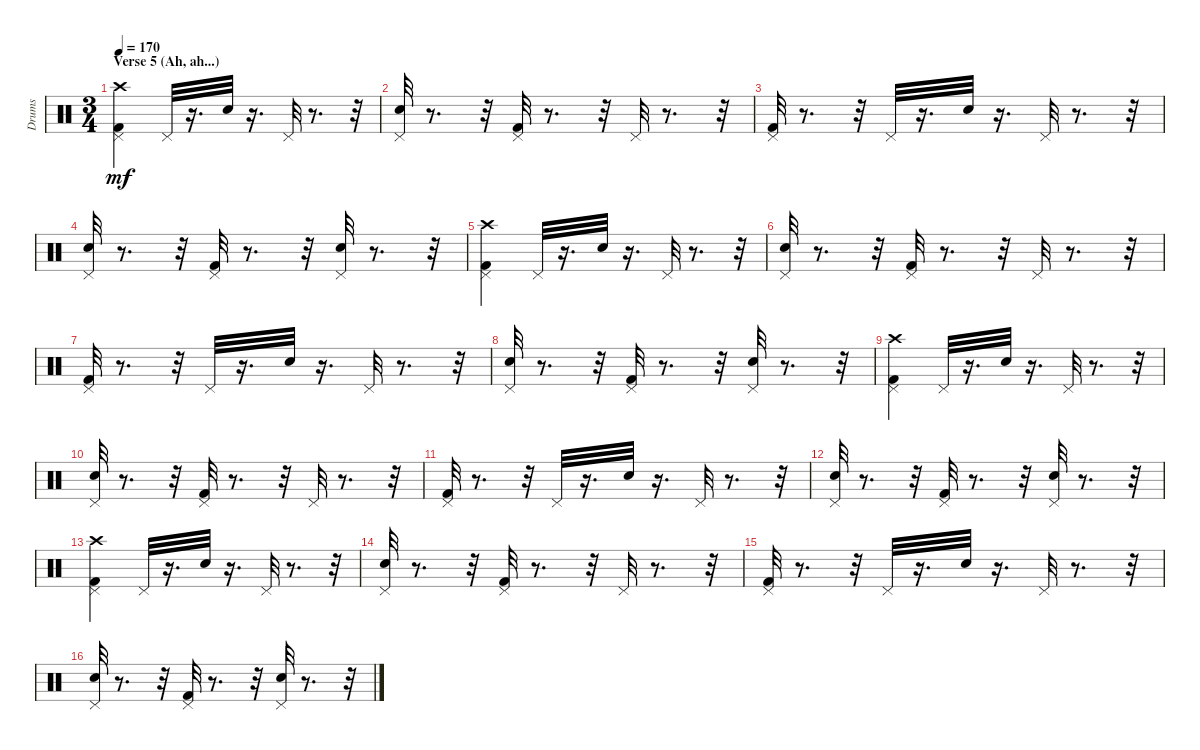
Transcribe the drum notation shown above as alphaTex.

\track ("Drums" "Drums") {instrument percussion}
\staff {score}
\articulation defaults
\ts (3 4)
\section ("" "Verse 5 (Ah, ah...)")
\tempo 170
\clef neutral
\ks c
("Kick (hit) 2" "Pedal Hi-Hat (hit)" "Crash high (hit)").4{dy mf} "Pedal Hi-Hat (hit)".32 r.16{d} "Snare (hit) 2".32 r.16{d} "Pedal Hi-Hat (hit)".32 r.8{d} r.32 |
("Snare (hit) 2" "Pedal Hi-Hat (hit)").32 r.8{d} r.32 ("Kick (hit) 2" "Pedal Hi-Hat (hit)").32 r.8{d} r.32 "Pedal Hi-Hat (hit)".32 r.8{d} r.32 |
("Kick (hit) 2" "Pedal Hi-Hat (hit)").32 r.8{d} r.32 "Pedal Hi-Hat (hit)".32 r.16{d} "Snare (hit) 2".32 r.16{d} "Pedal Hi-Hat (hit)".32 r.8{d} r.32 |
("Snare (hit) 2" "Pedal Hi-Hat (hit)").32 r.8{d} r.32 ("Kick (hit) 2" "Pedal Hi-Hat (hit)").32 r.8{d} r.32 ("Snare (hit) 2" "Pedal Hi-Hat (hit)").32 r.8{d} r.32 |
("Kick (hit) 2" "Pedal Hi-Hat (hit)" "Crash high (hit)").4 "Pedal Hi-Hat (hit)".32 r.16{d} "Snare (hit) 2".32 r.16{d} "Pedal Hi-Hat (hit)".32 r.8{d} r.32 |
("Snare (hit) 2" "Pedal Hi-Hat (hit)").32 r.8{d} r.32 ("Kick (hit) 2" "Pedal Hi-Hat (hit)").32 r.8{d} r.32 "Pedal Hi-Hat (hit)".32 r.8{d} r.32 |
("Kick (hit) 2" "Pedal Hi-Hat (hit)").32 r.8{d} r.32 "Pedal Hi-Hat (hit)".32 r.16{d} "Snare (hit) 2".32 r.16{d} "Pedal Hi-Hat (hit)".32 r.8{d} r.32 |
("Snare (hit) 2" "Pedal Hi-Hat (hit)").32 r.8{d} r.32 ("Kick (hit) 2" "Pedal Hi-Hat (hit)").32 r.8{d} r.32 ("Snare (hit) 2" "Pedal Hi-Hat (hit)").32 r.8{d} r.32 |
("Kick (hit) 2" "Pedal Hi-Hat (hit)" "Crash high (hit)").4 "Pedal Hi-Hat (hit)".32 r.16{d} "Snare (hit) 2".32 r.16{d} "Pedal Hi-Hat (hit)".32 r.8{d} r.32 |
("Snare (hit) 2" "Pedal Hi-Hat (hit)").32 r.8{d} r.32 ("Kick (hit) 2" "Pedal Hi-Hat (hit)").32 r.8{d} r.32 "Pedal Hi-Hat (hit)".32 r.8{d} r.32 |
("Kick (hit) 2" "Pedal Hi-Hat (hit)").32 r.8{d} r.32 "Pedal Hi-Hat (hit)".32 r.16{d} "Snare (hit) 2".32 r.16{d} "Pedal Hi-Hat (hit)".32 r.8{d} r.32 |
("Snare (hit) 2" "Pedal Hi-Hat (hit)").32 r.8{d} r.32 ("Kick (hit) 2" "Pedal Hi-Hat (hit)").32 r.8{d} r.32 ("Snare (hit) 2" "Pedal Hi-Hat (hit)").32 r.8{d} r.32 |
("Kick (hit) 2" "Pedal Hi-Hat (hit)" "Crash high (hit)").4 "Pedal Hi-Hat (hit)".32 r.16{d} "Snare (hit) 2".32 r.16{d} "Pedal Hi-Hat (hit)".32 r.8{d} r.32 |
("Snare (hit) 2" "Pedal Hi-Hat (hit)").32 r.8{d} r.32 ("Kick (hit) 2" "Pedal Hi-Hat (hit)").32 r.8{d} r.32 "Pedal Hi-Hat (hit)".32 r.8{d} r.32 |
("Kick (hit) 2" "Pedal Hi-Hat (hit)").32 r.8{d} r.32 "Pedal Hi-Hat (hit)".32 r.16{d} "Snare (hit) 2".32 r.16{d} "Pedal Hi-Hat (hit)".32 r.8{d} r.32 |
("Snare (hit) 2" "Pedal Hi-Hat (hit)").32 r.8{d} r.32 ("Kick (hit) 2" "Pedal Hi-Hat (hit)").32 r.8{d} r.32 ("Snare (hit) 2" "Pedal Hi-Hat (hit)").32 r.8{d} r.32
